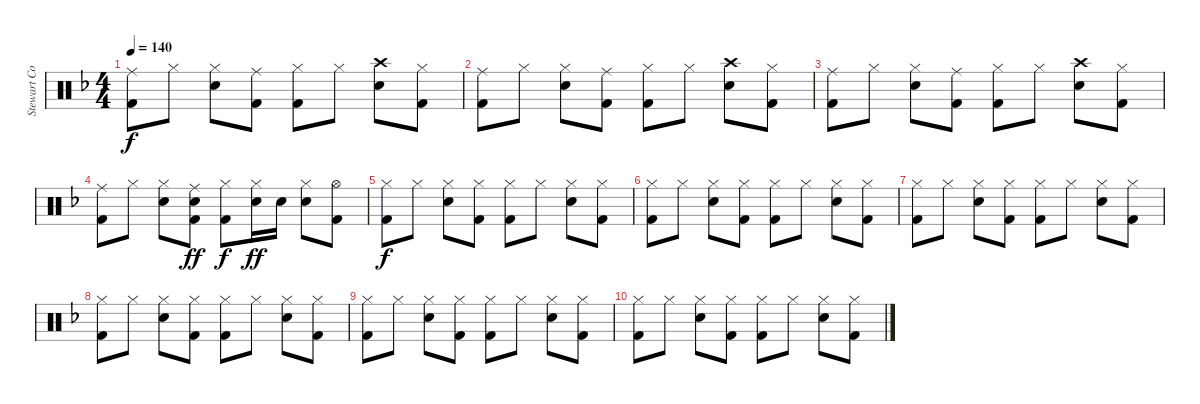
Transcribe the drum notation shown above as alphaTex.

\track ("Stewart Copeland" "Stewart Co") {instrument percussion}
\staff {score}
\articulation defaults
\ts (4 4)
\tempo 140
\clef neutral
\ks f
("Ride (middle)" "Kick (hit) 2").8{dy f} "Hi-Hat (closed)".8 ("Hi-Hat (closed)" "Snare (hit) 2").8 ("Ride (middle)" "Kick (hit) 2").8 ("Hi-Hat (closed)" "Kick (hit) 2").8 "Hi-Hat (closed)".8 ("Crash high (hit)" "Snare (hit) 2").8 ("Hi-Hat (closed)" "Kick (hit) 2").8 |
("Ride (middle)" "Kick (hit) 2").8 "Hi-Hat (closed)".8 ("Hi-Hat (closed)" "Snare (hit) 2").8 ("Ride (middle)" "Kick (hit) 2").8 ("Hi-Hat (closed)" "Kick (hit) 2").8 "Hi-Hat (closed)".8 ("Crash high (hit)" "Snare (hit) 2").8 ("Hi-Hat (closed)" "Kick (hit) 2").8 |
("Ride (middle)" "Kick (hit) 2").8 "Hi-Hat (closed)".8 ("Hi-Hat (closed)" "Snare (hit) 2").8 ("Ride (middle)" "Kick (hit) 2").8 ("Hi-Hat (closed)" "Kick (hit) 2").8 "Hi-Hat (closed)".8 ("Crash high (hit)" "Snare (hit) 2").8 ("Hi-Hat (closed)" "Kick (hit) 2").8 |
("Ride (middle)" "Kick (hit) 2").8 "Hi-Hat (closed)".8 ("Hi-Hat (closed)" "Snare (hit) 2").8 ("Ride (middle)" "Snare (hit) 2" "Kick (hit) 2").8{dy ff} ("Hi-Hat (closed)" "Kick (hit) 2").8{dy f} ("Hi-Hat (closed)" "Snare (hit) 2").16{dy ff} "Snare (hit) 2".16 ("Hi-Hat (closed)" "Snare (hit) 2").8 ("Hi-Hat (open)" "Kick (hit) 2").8 |
("Hi-Hat (closed)" "Kick (hit) 2").8{dy f} "Hi-Hat (closed)".8 ("Hi-Hat (closed)" "Snare (hit) 2").8 ("Hi-Hat (closed)" "Kick (hit) 2").8 ("Hi-Hat (closed)" "Kick (hit) 2").8 "Hi-Hat (closed)".8 ("Hi-Hat (closed)" "Snare (hit) 2").8 ("Hi-Hat (closed)" "Kick (hit) 2").8 |
("Hi-Hat (closed)" "Kick (hit) 2").8 "Hi-Hat (closed)".8 ("Hi-Hat (closed)" "Snare (hit) 2").8 ("Hi-Hat (closed)" "Kick (hit) 2").8 ("Hi-Hat (closed)" "Kick (hit) 2").8 "Hi-Hat (closed)".8 ("Hi-Hat (closed)" "Snare (hit) 2").8 ("Hi-Hat (closed)" "Kick (hit) 2").8 |
("Hi-Hat (closed)" "Kick (hit) 2").8 "Hi-Hat (closed)".8 ("Hi-Hat (closed)" "Snare (hit) 2").8 ("Hi-Hat (closed)" "Kick (hit) 2").8 ("Hi-Hat (closed)" "Kick (hit) 2").8 "Hi-Hat (closed)".8 ("Hi-Hat (closed)" "Snare (hit) 2").8 ("Hi-Hat (closed)" "Kick (hit) 2").8 |
("Hi-Hat (closed)" "Kick (hit) 2").8 "Hi-Hat (closed)".8 ("Hi-Hat (closed)" "Snare (hit) 2").8 ("Hi-Hat (closed)" "Kick (hit) 2").8 ("Hi-Hat (closed)" "Kick (hit) 2").8 "Hi-Hat (closed)".8 ("Hi-Hat (closed)" "Snare (hit) 2").8 ("Hi-Hat (closed)" "Kick (hit) 2").8 |
("Hi-Hat (closed)" "Kick (hit) 2").8 "Hi-Hat (closed)".8 ("Hi-Hat (closed)" "Snare (hit) 2").8 ("Hi-Hat (closed)" "Kick (hit) 2").8 ("Hi-Hat (closed)" "Kick (hit) 2").8 "Hi-Hat (closed)".8 ("Hi-Hat (closed)" "Snare (hit) 2").8 ("Hi-Hat (closed)" "Kick (hit) 2").8 |
("Hi-Hat (closed)" "Kick (hit) 2").8 "Hi-Hat (closed)".8 ("Hi-Hat (closed)" "Snare (hit) 2").8 ("Hi-Hat (closed)" "Kick (hit) 2").8 ("Hi-Hat (closed)" "Kick (hit) 2").8 "Hi-Hat (closed)".8 ("Hi-Hat (closed)" "Snare (hit) 2").8 ("Hi-Hat (closed)" "Kick (hit) 2").8
